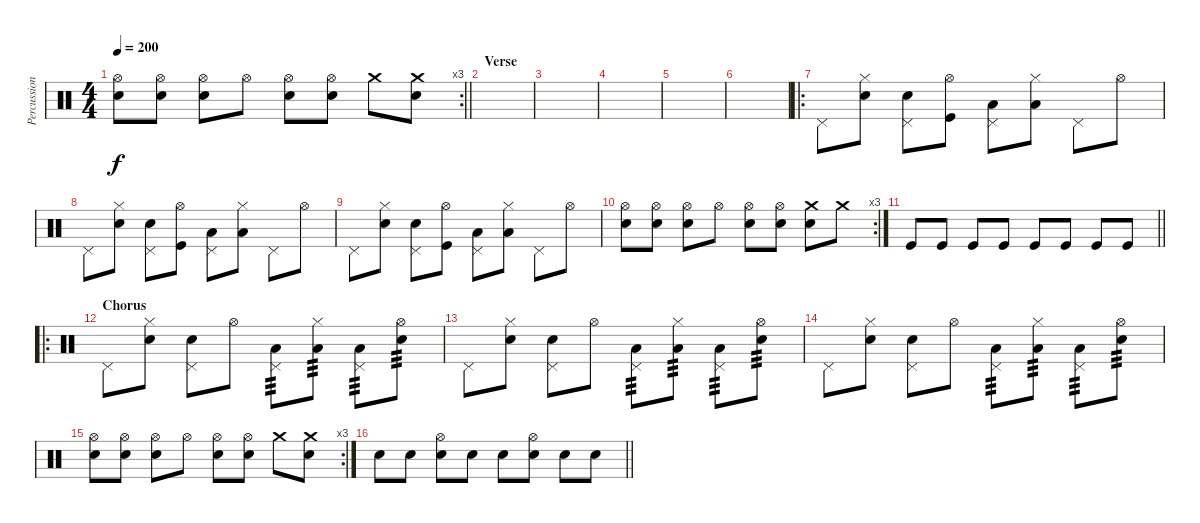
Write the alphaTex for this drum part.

\track ("Percussion" "Percussion") {instrument percussion}
\staff {score}
\articulation defaults
\rc 3
\ts (4 4)
\tempo 200
\clef neutral
\barLineRight lightlight
\ks c
("Hi-Hat (open)" "Electric Snare (hit)").8{dy f} ("Hi-Hat (open)" "Electric Snare (hit)").8 ("Hi-Hat (open)" "Electric Snare (hit)").8 "Hi-Hat (open)".8 ("Hi-Hat (open)" "Electric Snare (hit)").8 ("Hi-Hat (open)" "Electric Snare (hit)").8 "Crash medium (hit)".8 ("Crash medium (hit)" "Electric Snare (hit)").8 |
\section ("" "Verse")
|
|
|
|
|
\ro "Pedal Hi-Hat (hit)".8{volume 7}
("Hi-Hat (closed)" "Electric Snare (hit)").8 ("Pedal Hi-Hat (hit)" "Electric Snare (hit)").8 ("Hi-Hat (open)" "Kick (hit)").8 ("Pedal Hi-Hat (hit)" "Low Floor Tom (hit)").8 ("Hi-Hat (closed)" "Low Tom (hit)").8 "Pedal Hi-Hat (hit)".8 "Hi-Hat (open)".8 |
"Pedal Hi-Hat (hit)".8 ("Hi-Hat (closed)" "Electric Snare (hit)").8 ("Pedal Hi-Hat (hit)" "Electric Snare (hit)").8 ("Hi-Hat (open)" "Kick (hit)").8 ("Pedal Hi-Hat (hit)" "Low Floor Tom (hit)").8 ("Hi-Hat (closed)" "Low Tom (hit)").8 "Pedal Hi-Hat (hit)".8 "Hi-Hat (open)".8 |
"Pedal Hi-Hat (hit)".8 ("Hi-Hat (closed)" "Electric Snare (hit)").8 ("Pedal Hi-Hat (hit)" "Electric Snare (hit)").8 ("Hi-Hat (open)" "Kick (hit)").8 ("Pedal Hi-Hat (hit)" "Low Floor Tom (hit)").8 ("Hi-Hat (closed)" "Low Tom (hit)").8 "Pedal Hi-Hat (hit)".8 "Hi-Hat (open)".8 |
\rc 3
("Hi-Hat (open)" "Electric Snare (hit)").8 ("Hi-Hat (open)" "Electric Snare (hit)").8 ("Hi-Hat (open)" "Electric Snare (hit)").8 "Hi-Hat (open)".8 ("Hi-Hat (open)" "Electric Snare (hit)").8 ("Hi-Hat (open)" "Electric Snare (hit)").8 ("Crash medium (hit)" "Electric Snare (hit)").8 "Crash medium (hit)".8 |
\barLineRight lightlight "Kick (hit)".8 "Kick (hit)".8 "Kick (hit)".8 "Kick (hit)".8 "Kick (hit)".8 "Kick (hit)".8 "Kick (hit)".8 "Kick (hit)".8
|
\ro
\section ("" "Chorus")
"Pedal Hi-Hat (hit)".8 ("Hi-Hat (closed)" "Electric Snare (hit)").8 ("Pedal Hi-Hat (hit)" "Electric Snare (hit)").8 "Hi-Hat (open)".8 ("Pedal Hi-Hat (hit)" "Low Floor Tom (hit)").8{tp 3} ("Hi-Hat (closed)" "Low Floor Tom (hit)").8{tp 3} ("Pedal Hi-Hat (hit)" "Low Tom (hit)").8{tp 3} ("Hi-Hat (open)" "Electric Snare (hit)").8{tp 3} |
"Pedal Hi-Hat (hit)".8 ("Hi-Hat (closed)" "Electric Snare (hit)").8 ("Pedal Hi-Hat (hit)" "Electric Snare (hit)").8 "Hi-Hat (open)".8 ("Pedal Hi-Hat (hit)" "Low Floor Tom (hit)").8{tp 3} ("Hi-Hat (closed)" "Low Floor Tom (hit)").8{tp 3} ("Pedal Hi-Hat (hit)" "Low Tom (hit)").8{tp 3} ("Hi-Hat (open)" "Electric Snare (hit)").8{tp 3} |
"Pedal Hi-Hat (hit)".8 ("Hi-Hat (closed)" "Electric Snare (hit)").8 ("Pedal Hi-Hat (hit)" "Electric Snare (hit)").8 "Hi-Hat (open)".8 ("Pedal Hi-Hat (hit)" "Low Floor Tom (hit)").8{tp 3} ("Hi-Hat (closed)" "Low Floor Tom (hit)").8{tp 3} ("Pedal Hi-Hat (hit)" "Low Tom (hit)").8{tp 3} ("Hi-Hat (open)" "Electric Snare (hit)").8{tp 3} |
\rc 3
("Hi-Hat (open)" "Electric Snare (hit)").8 ("Hi-Hat (open)" "Electric Snare (hit)").8 ("Hi-Hat (open)" "Electric Snare (hit)").8 "Hi-Hat (open)".8 ("Hi-Hat (open)" "Electric Snare (hit)").8 ("Hi-Hat (open)" "Electric Snare (hit)").8 "Crash medium (hit)".8 ("Crash medium (hit)" "Electric Snare (hit)").8 |
\barLineRight lightlight "Electric Snare (hit)".8 "Electric Snare (hit)".8
("Electric Snare (hit)" "Hi-Hat (open)").8 "Electric Snare (hit)".8 "Electric Snare (hit)".8 ("Electric Snare (hit)" "Hi-Hat (open)").8 "Electric Snare (hit)".8 "Electric Snare (hit)".8
